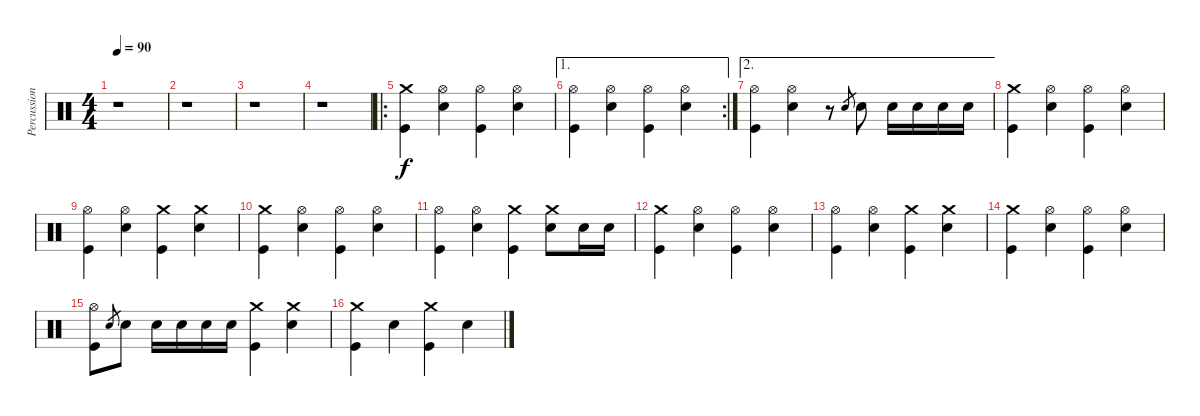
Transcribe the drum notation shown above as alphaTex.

\track ("Percussion" "Percussion") {instrument percussion}
\staff {score}
\articulation defaults
\ts (4 4)
\tempo 90
\clef neutral
\ks c
r.1{dy f} |
r.1 |
r.1 |
r.1 |
\ro
("Crash medium (hit)" "Kick (hit)").4 ("Hi-Hat (open)" "Snare (hit) 2").4 ("Hi-Hat (open)" "Kick (hit)").4 ("Hi-Hat (open)" "Snare (hit) 2").4 |
\ae 1
\rc 2
("Hi-Hat (open)" "Kick (hit)").4 ("Hi-Hat (open)" "Snare (hit) 2").4 ("Hi-Hat (open)" "Kick (hit)").4 ("Hi-Hat (open)" "Snare (hit) 2").4 |
\ae 2
("Hi-Hat (open)" "Kick (hit)").4 ("Hi-Hat (open)" "Snare (hit) 2").4 r.8 "Snare (hit) 2".8{gr} "Snare (hit) 2".8 "Snare (hit) 2".16 "Snare (hit) 2".16 "Snare (hit) 2".16 "Snare (hit) 2".16 |
("Crash medium (hit)" "Kick (hit)").4 ("Hi-Hat (open)" "Snare (hit) 2").4 ("Hi-Hat (open)" "Kick (hit)").4 ("Hi-Hat (open)" "Snare (hit) 2").4 |
("Hi-Hat (open)" "Kick (hit)").4 ("Hi-Hat (open)" "Snare (hit) 2").4 ("Crash medium (hit)" "Kick (hit)").4 ("Crash medium (hit)" "Snare (hit) 2").4 |
("Crash medium (hit)" "Kick (hit)").4 ("Hi-Hat (open)" "Snare (hit) 2").4 ("Hi-Hat (open)" "Kick (hit)").4 ("Hi-Hat (open)" "Snare (hit) 2").4 |
("Hi-Hat (open)" "Kick (hit)").4 ("Hi-Hat (open)" "Snare (hit) 2").4 ("Crash medium (hit)" "Kick (hit)").4 ("Crash medium (hit)" "Snare (hit) 2").8 "Snare (hit) 2".16 "Snare (hit) 2".16 |
("Crash medium (hit)" "Kick (hit)").4 ("Hi-Hat (open)" "Snare (hit) 2").4 ("Hi-Hat (open)" "Kick (hit)").4 ("Hi-Hat (open)" "Snare (hit) 2").4 |
("Hi-Hat (open)" "Kick (hit)").4 ("Hi-Hat (open)" "Snare (hit) 2").4 ("Crash medium (hit)" "Kick (hit)").4 ("Crash medium (hit)" "Snare (hit) 2").4 |
("Crash medium (hit)" "Kick (hit)").4 ("Hi-Hat (open)" "Snare (hit) 2").4 ("Hi-Hat (open)" "Kick (hit)").4 ("Hi-Hat (open)" "Snare (hit) 2").4 |
("Hi-Hat (open)" "Kick (hit)").8 "Snare (hit) 2".8{gr} "Snare (hit) 2".8 "Snare (hit) 2".16 "Snare (hit) 2".16 "Snare (hit) 2".16 "Snare (hit) 2".16 ("Crash medium (hit)" "Kick (hit)").4 ("Crash medium (hit)" "Snare (hit) 2").4 |
("Crash medium (hit)" "Kick (hit)").4 "Snare (hit) 2".4 ("Crash medium (hit)" "Kick (hit)").4 "Snare (hit) 2".4
